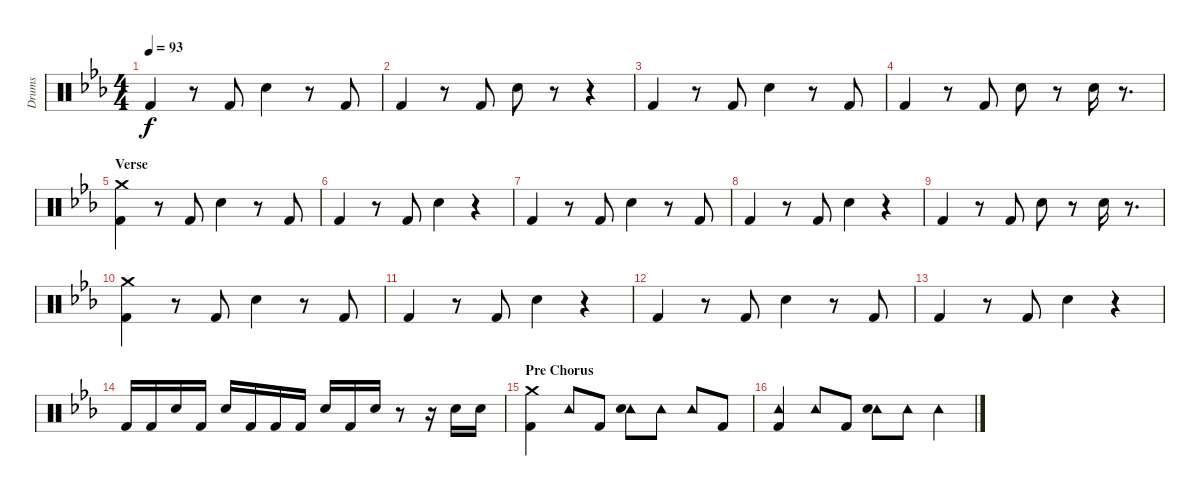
\track ("Drums" "Drums") {instrument percussion}
\staff {score}
\articulation defaults
\ts (4 4)
\tempo 93
\clef neutral
\ks eb "Kick (hit) 2".4{dy f}
r.8 "Kick (hit) 2".8 "Snare (hit) 2".4 r.8 "Kick (hit) 2".8 |
"Kick (hit) 2".4 r.8 "Kick (hit) 2".8 "Snare (hit) 2".8 r.8 r.4 |
"Kick (hit) 2".4 r.8 "Kick (hit) 2".8 "Snare (hit) 2".4 r.8 "Kick (hit) 2".8 |
"Kick (hit) 2".4 r.8 "Kick (hit) 2".8 "Snare (hit) 2".8 r.8 "Snare (hit) 2".16 r.8{d} |
\section ("" "Verse")
("Crash medium (hit)" "Kick (hit) 2").4 r.8 "Kick (hit) 2".8 "Snare (hit) 2".4 r.8 "Kick (hit) 2".8 |
"Kick (hit) 2".4 r.8 "Kick (hit) 2".8 "Snare (hit) 2".4 r.4 |
"Kick (hit) 2".4 r.8 "Kick (hit) 2".8 "Snare (hit) 2".4 r.8 "Kick (hit) 2".8 |
"Kick (hit) 2".4 r.8 "Kick (hit) 2".8 "Snare (hit) 2".4 r.4 |
"Kick (hit) 2".4 r.8 "Kick (hit) 2".8 "Snare (hit) 2".8 r.8 "Snare (hit) 2".16 r.8{d} |
("Crash medium (hit)" "Kick (hit) 2").4 r.8 "Kick (hit) 2".8 "Snare (hit) 2".4 r.8 "Kick (hit) 2".8 |
"Kick (hit) 2".4 r.8 "Kick (hit) 2".8 "Snare (hit) 2".4 r.4 |
"Kick (hit) 2".4 r.8 "Kick (hit) 2".8 "Snare (hit) 2".4 r.8 "Kick (hit) 2".8 |
"Kick (hit) 2".4 r.8 "Kick (hit) 2".8 "Snare (hit) 2".4 r.4 |
"Kick (hit) 2".16 "Kick (hit) 2".16 "Snare (hit) 2".16 "Kick (hit) 2".16 "Snare (hit) 2".16 "Kick (hit) 2".16 "Kick (hit) 2".16 "Kick (hit) 2".16 "Snare (hit) 2".16 "Kick (hit) 2".16 "Snare (hit) 2".16 r.8 r.16 "Snare (hit) 2".16 "Snare (hit) 2".16 |
\section ("" "Pre Chorus")
("Crash medium (hit)" "Kick (hit) 2").4 "Tambourine (hit)".8 "Kick (hit) 2".8 ("Tambourine (hit)" "Snare (hit) 2").8 "Tambourine (hit)".8 "Tambourine (hit)".8 "Kick (hit) 2".8 |
("Tambourine (hit)" "Kick (hit) 2").4 "Tambourine (hit)".8 "Kick (hit) 2".8 ("Tambourine (hit)" "Snare (hit) 2").8 "Tambourine (hit)".8 "Tambourine (hit)".4
